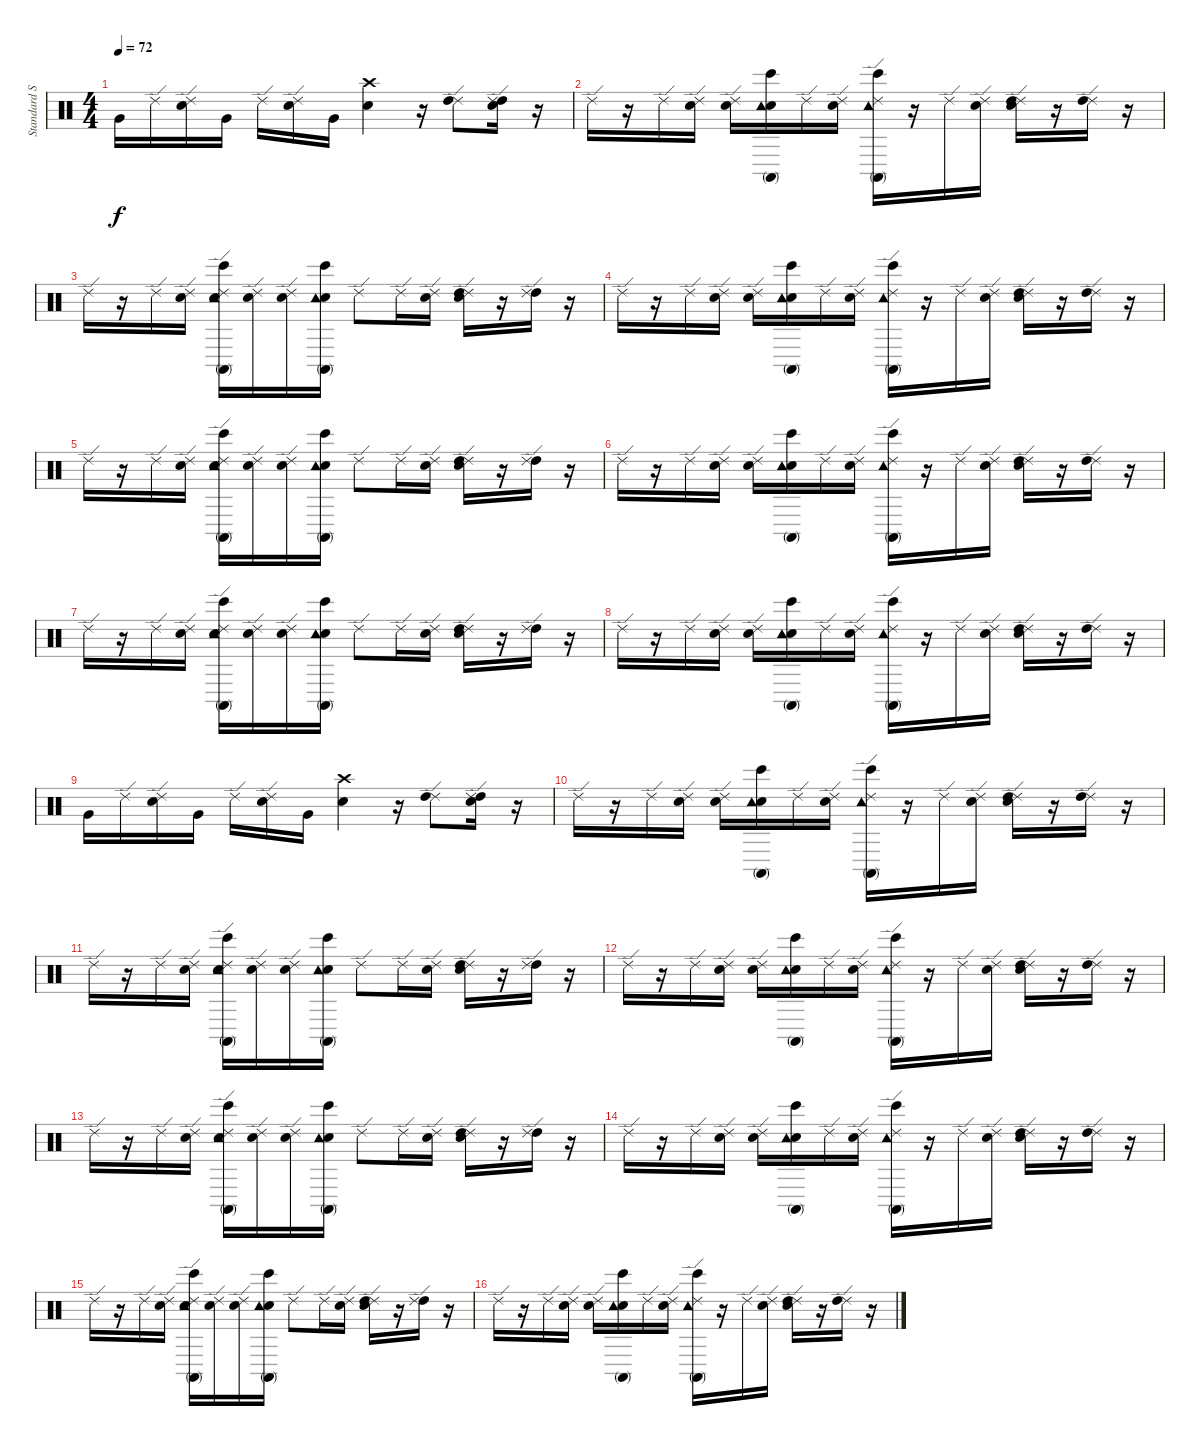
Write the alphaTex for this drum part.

\track ("Standard Set" "Standard S") {instrument percussion}
\staff {score}
\articulation defaults
\ts (4 4)
\tempo 72
\clef neutral
\ks c "Very Low Tom (hit)".16{dy f} "Ride (edge) 2".16
("Snare (hit)" "Ride (edge) 2").16 "Very Low Tom (hit)".16 "Ride (edge) 2".16 ("Snare (hit)" "Ride (edge) 2").16 "Very Low Tom (hit)".16 ("Snare (hit)" "Crash high (hit)").4 r.16 ("Ride (edge) 2" "High Tom (hit)").8 ("Snare (hit)" "High Tom (hit)" "Ride (edge) 2").16 r.16 |
"Ride (edge) 2".16 r.16 "Ride (edge) 2".16 ("Snare (hit)" "Ride (edge) 2").16 ("Snare (hit)" "Ride (edge) 2").16 ("Snare (hit)" "Conga high (mute)" "Bongo High (hit)" "Tambourine (hit)").16 "Ride (edge) 2".16 ("Snare (hit)" "Ride (edge) 2").16 ("Bongo High (hit)" "Conga high (mute)" "Ride (edge) 2" "Tambourine (hit)").16 r.16 "Ride (edge) 2".16 ("Snare (hit)" "Ride (edge) 2").16 ("Snare (hit)" "Ride (edge) 2" "High Tom (hit)").16 r.16 ("Ride (edge) 2" "High Tom (hit)").16 r.16 |
"Ride (edge) 2".16 r.16 "Ride (edge) 2".16 ("Snare (hit)" "Ride (edge) 2").16 ("Snare (hit)" "Ride (edge) 2" "Conga high (mute)" "Bongo High (hit)" "Tambourine (hit)").16 ("Snare (hit)" "Ride (edge) 2").16 ("Snare (hit)" "Ride (edge) 2").16 ("Snare (hit)" "Conga high (mute)" "Bongo High (hit)" "Tambourine (hit)").16 "Ride (edge) 2".8 "Ride (edge) 2".16 ("Snare (hit)" "Ride (edge) 2").16 ("Snare (hit)" "Ride (edge) 2" "High Tom (hit)").16 r.16 ("High Tom (hit)" "Ride (edge) 2").16 r.16 |
"Ride (edge) 2".16 r.16 "Ride (edge) 2".16 ("Snare (hit)" "Ride (edge) 2").16 ("Snare (hit)" "Ride (edge) 2").16 ("Snare (hit)" "Conga high (mute)" "Bongo High (hit)" "Tambourine (hit)").16 "Ride (edge) 2".16 ("Snare (hit)" "Ride (edge) 2").16 ("Bongo High (hit)" "Conga high (mute)" "Ride (edge) 2" "Tambourine (hit)").16 r.16 "Ride (edge) 2".16 ("Snare (hit)" "Ride (edge) 2").16 ("Snare (hit)" "Ride (edge) 2" "High Tom (hit)").16 r.16 ("Ride (edge) 2" "High Tom (hit)").16 r.16 |
"Ride (edge) 2".16 r.16 "Ride (edge) 2".16 ("Snare (hit)" "Ride (edge) 2").16 ("Snare (hit)" "Ride (edge) 2" "Conga high (mute)" "Bongo High (hit)" "Tambourine (hit)").16 ("Snare (hit)" "Ride (edge) 2").16 ("Snare (hit)" "Ride (edge) 2").16 ("Snare (hit)" "Conga high (mute)" "Bongo High (hit)" "Tambourine (hit)").16 "Ride (edge) 2".8 "Ride (edge) 2".16 ("Snare (hit)" "Ride (edge) 2").16 ("Snare (hit)" "Ride (edge) 2" "High Tom (hit)").16 r.16 ("High Tom (hit)" "Ride (edge) 2").16 r.16 |
"Ride (edge) 2".16 r.16 "Ride (edge) 2".16 ("Snare (hit)" "Ride (edge) 2").16 ("Snare (hit)" "Ride (edge) 2").16 ("Snare (hit)" "Conga high (mute)" "Bongo High (hit)" "Tambourine (hit)").16 "Ride (edge) 2".16 ("Snare (hit)" "Ride (edge) 2").16 ("Bongo High (hit)" "Conga high (mute)" "Ride (edge) 2" "Tambourine (hit)").16 r.16 "Ride (edge) 2".16 ("Snare (hit)" "Ride (edge) 2").16 ("Snare (hit)" "Ride (edge) 2" "High Tom (hit)").16 r.16 ("Ride (edge) 2" "High Tom (hit)").16 r.16 |
"Ride (edge) 2".16 r.16 "Ride (edge) 2".16 ("Snare (hit)" "Ride (edge) 2").16 ("Snare (hit)" "Ride (edge) 2" "Conga high (mute)" "Bongo High (hit)" "Tambourine (hit)").16 ("Snare (hit)" "Ride (edge) 2").16 ("Snare (hit)" "Ride (edge) 2").16 ("Snare (hit)" "Conga high (mute)" "Bongo High (hit)" "Tambourine (hit)").16 "Ride (edge) 2".8 "Ride (edge) 2".16 ("Snare (hit)" "Ride (edge) 2").16 ("Snare (hit)" "Ride (edge) 2" "High Tom (hit)").16 r.16 ("High Tom (hit)" "Ride (edge) 2").16 r.16 |
"Ride (edge) 2".16 r.16 "Ride (edge) 2".16 ("Snare (hit)" "Ride (edge) 2").16 ("Snare (hit)" "Ride (edge) 2").16 ("Snare (hit)" "Conga high (mute)" "Bongo High (hit)" "Tambourine (hit)").16 "Ride (edge) 2".16 ("Snare (hit)" "Ride (edge) 2").16 ("Bongo High (hit)" "Conga high (mute)" "Ride (edge) 2" "Tambourine (hit)").16 r.16 "Ride (edge) 2".16 ("Snare (hit)" "Ride (edge) 2").16 ("Snare (hit)" "Ride (edge) 2" "High Tom (hit)").16 r.16 ("Ride (edge) 2" "High Tom (hit)").16 r.16 |
"Very Low Tom (hit)".16 "Ride (edge) 2".16 ("Snare (hit)" "Ride (edge) 2").16 "Very Low Tom (hit)".16 "Ride (edge) 2".16 ("Snare (hit)" "Ride (edge) 2").16 "Very Low Tom (hit)".16 ("Snare (hit)" "Crash high (hit)").4 r.16 ("Ride (edge) 2" "High Tom (hit)").8 ("Snare (hit)" "High Tom (hit)" "Ride (edge) 2").16 r.16 |
"Ride (edge) 2".16 r.16 "Ride (edge) 2".16 ("Snare (hit)" "Ride (edge) 2").16 ("Snare (hit)" "Ride (edge) 2").16 ("Snare (hit)" "Conga high (mute)" "Bongo High (hit)" "Tambourine (hit)").16 "Ride (edge) 2".16 ("Snare (hit)" "Ride (edge) 2").16 ("Bongo High (hit)" "Conga high (mute)" "Ride (edge) 2" "Tambourine (hit)").16 r.16 "Ride (edge) 2".16 ("Snare (hit)" "Ride (edge) 2").16 ("Snare (hit)" "Ride (edge) 2" "High Tom (hit)").16 r.16 ("Ride (edge) 2" "High Tom (hit)").16 r.16 |
"Ride (edge) 2".16 r.16 "Ride (edge) 2".16 ("Snare (hit)" "Ride (edge) 2").16 ("Snare (hit)" "Ride (edge) 2" "Conga high (mute)" "Bongo High (hit)" "Tambourine (hit)").16 ("Snare (hit)" "Ride (edge) 2").16 ("Snare (hit)" "Ride (edge) 2").16 ("Snare (hit)" "Conga high (mute)" "Bongo High (hit)" "Tambourine (hit)").16 "Ride (edge) 2".8 "Ride (edge) 2".16 ("Snare (hit)" "Ride (edge) 2").16 ("Snare (hit)" "Ride (edge) 2" "High Tom (hit)").16 r.16 ("High Tom (hit)" "Ride (edge) 2").16 r.16 |
"Ride (edge) 2".16 r.16 "Ride (edge) 2".16 ("Snare (hit)" "Ride (edge) 2").16 ("Snare (hit)" "Ride (edge) 2").16 ("Snare (hit)" "Conga high (mute)" "Bongo High (hit)" "Tambourine (hit)").16 "Ride (edge) 2".16 ("Snare (hit)" "Ride (edge) 2").16 ("Bongo High (hit)" "Conga high (mute)" "Ride (edge) 2" "Tambourine (hit)").16 r.16 "Ride (edge) 2".16 ("Snare (hit)" "Ride (edge) 2").16 ("Snare (hit)" "Ride (edge) 2" "High Tom (hit)").16 r.16 ("Ride (edge) 2" "High Tom (hit)").16 r.16 |
"Ride (edge) 2".16 r.16 "Ride (edge) 2".16 ("Snare (hit)" "Ride (edge) 2").16 ("Snare (hit)" "Ride (edge) 2" "Conga high (mute)" "Bongo High (hit)" "Tambourine (hit)").16 ("Snare (hit)" "Ride (edge) 2").16 ("Snare (hit)" "Ride (edge) 2").16 ("Snare (hit)" "Conga high (mute)" "Bongo High (hit)" "Tambourine (hit)").16 "Ride (edge) 2".8 "Ride (edge) 2".16 ("Snare (hit)" "Ride (edge) 2").16 ("Snare (hit)" "Ride (edge) 2" "High Tom (hit)").16 r.16 ("High Tom (hit)" "Ride (edge) 2").16 r.16 |
"Ride (edge) 2".16 r.16 "Ride (edge) 2".16 ("Snare (hit)" "Ride (edge) 2").16 ("Snare (hit)" "Ride (edge) 2").16 ("Snare (hit)" "Conga high (mute)" "Bongo High (hit)" "Tambourine (hit)").16 "Ride (edge) 2".16 ("Snare (hit)" "Ride (edge) 2").16 ("Bongo High (hit)" "Conga high (mute)" "Ride (edge) 2" "Tambourine (hit)").16 r.16 "Ride (edge) 2".16 ("Snare (hit)" "Ride (edge) 2").16 ("Snare (hit)" "Ride (edge) 2" "High Tom (hit)").16 r.16 ("Ride (edge) 2" "High Tom (hit)").16 r.16 |
"Ride (edge) 2".16 r.16 "Ride (edge) 2".16 ("Snare (hit)" "Ride (edge) 2").16 ("Snare (hit)" "Ride (edge) 2" "Conga high (mute)" "Bongo High (hit)" "Tambourine (hit)").16 ("Snare (hit)" "Ride (edge) 2").16 ("Snare (hit)" "Ride (edge) 2").16 ("Snare (hit)" "Conga high (mute)" "Bongo High (hit)" "Tambourine (hit)").16 "Ride (edge) 2".8 "Ride (edge) 2".16 ("Snare (hit)" "Ride (edge) 2").16 ("Snare (hit)" "Ride (edge) 2" "High Tom (hit)").16 r.16 ("High Tom (hit)" "Ride (edge) 2").16 r.16 |
"Ride (edge) 2".16 r.16 "Ride (edge) 2".16 ("Snare (hit)" "Ride (edge) 2").16 ("Snare (hit)" "Ride (edge) 2").16 ("Snare (hit)" "Conga high (mute)" "Bongo High (hit)" "Tambourine (hit)").16 "Ride (edge) 2".16 ("Snare (hit)" "Ride (edge) 2").16 ("Bongo High (hit)" "Conga high (mute)" "Ride (edge) 2" "Tambourine (hit)").16 r.16 "Ride (edge) 2".16 ("Snare (hit)" "Ride (edge) 2").16 ("Snare (hit)" "Ride (edge) 2" "High Tom (hit)").16 r.16 ("Ride (edge) 2" "High Tom (hit)").16 r.16
